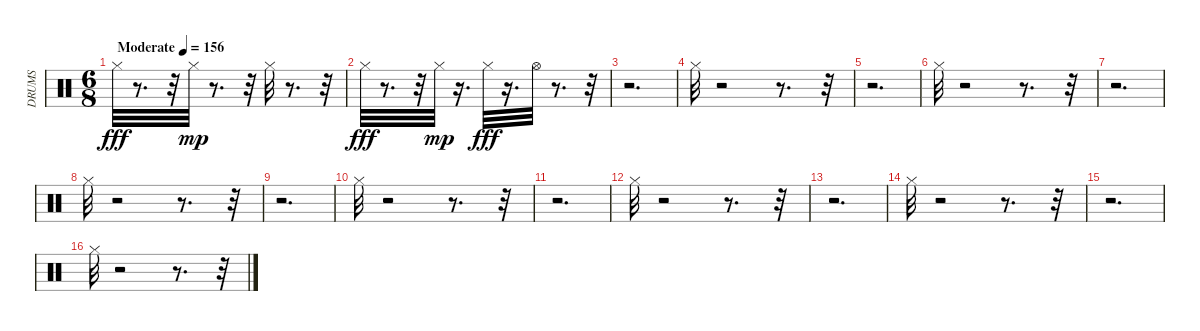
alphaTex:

\track ("DRUMS" "DRUMS") {instrument percussion}
\staff {score}
\articulation defaults
\ts (6 8)
\tempo (156 "Moderate")
\clef neutral
\ks c "Hi-Hat (closed)".32{dy fff}
r.8{d} r.32 "Hi-Hat (closed)".32{dy mp} r.8{d} r.32 "Hi-Hat (closed)".32 r.8{d} r.32 |
"Hi-Hat (closed)".32{dy fff} r.8{d} r.32 "Hi-Hat (closed)".32{dy mp} r.16{d} "Hi-Hat (closed)".32{dy fff} r.16{d} "Hi-Hat (open)".32 r.8{d} r.32 |
r.2{d} |
"Hi-Hat (closed)".32 r.2 r.8{d} r.32 |
r.2{d} |
"Hi-Hat (closed)".32 r.2 r.8{d} r.32 |
r.2{d} |
"Hi-Hat (closed)".32 r.2 r.8{d} r.32 |
r.2{d} |
"Hi-Hat (closed)".32 r.2 r.8{d} r.32 |
r.2{d} |
"Hi-Hat (closed)".32 r.2 r.8{d} r.32 |
r.2{d} |
"Hi-Hat (closed)".32 r.2 r.8{d} r.32 |
r.2{d} |
"Hi-Hat (closed)".32 r.2 r.8{d} r.32
